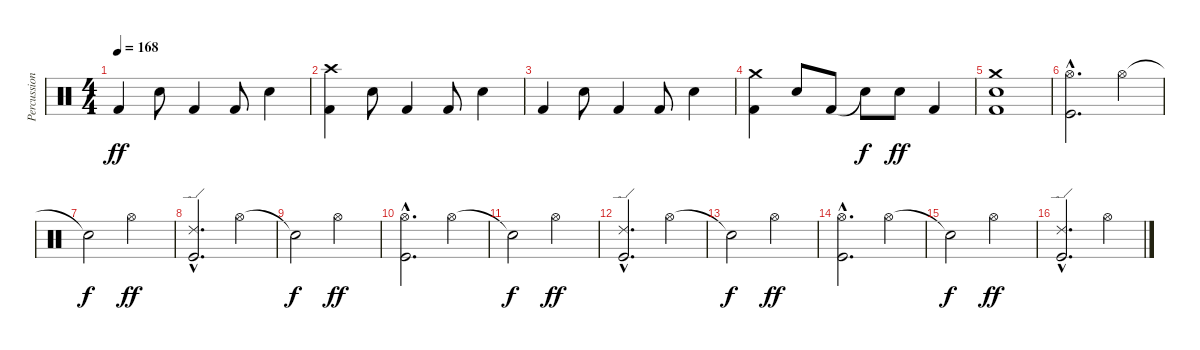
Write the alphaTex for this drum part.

\track ("Percussions" "Percussion") {instrument percussion}
\staff {score}
\articulation defaults
\ts (4 4)
\tempo 168
\clef neutral
\ks c "Kick (hit) 2".4{dy ff} "Snare (hit) 2".8 "Kick (hit) 2".4 "Kick (hit) 2".8 "Snare (hit) 2".4
|
("Kick (hit) 2" "Crash high (hit)").4 "Snare (hit) 2".8 "Kick (hit) 2".4 "Kick (hit) 2".8 "Snare (hit) 2".4 |
"Kick (hit) 2".4 "Snare (hit) 2".8 "Kick (hit) 2".4 "Kick (hit) 2".8 "Snare (hit) 2".4 |
("Kick (hit) 2" "Crash medium (hit)").4 "Snare (hit) 2".8 "Kick (hit) 2".8 "Snare (hit)"{t}.8{dy f} "Snare (hit) 2".8{dy ff} "Kick (hit) 2".4 |
("Kick (hit) 2" "Snare (hit) 2" "Crash medium (hit)").1 |
("Kick (hit)"{hac} "Hi-Hat (open)"{hac}).2{d} "Hi-Hat (open)".4 |
"Snare (hit)"{t}.2{dy f} "Hi-Hat (open)".2{dy ff} |
("Kick (hit)"{hac} "Ride (edge) 2"{hac}).2{d} "Hi-Hat (open)".4 |
"Snare (hit)"{t}.2{dy f} "Hi-Hat (open)".2{dy ff} |
("Kick (hit)"{hac} "Hi-Hat (open)"{hac}).2{d} "Hi-Hat (open)".4 |
"Snare (hit)"{t}.2{dy f} "Hi-Hat (open)".2{dy ff} |
("Kick (hit)"{hac} "Ride (edge) 2"{hac}).2{d} "Hi-Hat (open)".4 |
"Snare (hit)"{t}.2{dy f} "Hi-Hat (open)".2{dy ff} |
("Kick (hit)"{hac} "Hi-Hat (open)"{hac}).2{d} "Hi-Hat (open)".4 |
"Snare (hit)"{t}.2{dy f} "Hi-Hat (open)".2{dy ff} |
("Kick (hit)"{hac} "Ride (edge) 2"{hac}).2{d} "Hi-Hat (open)".4
